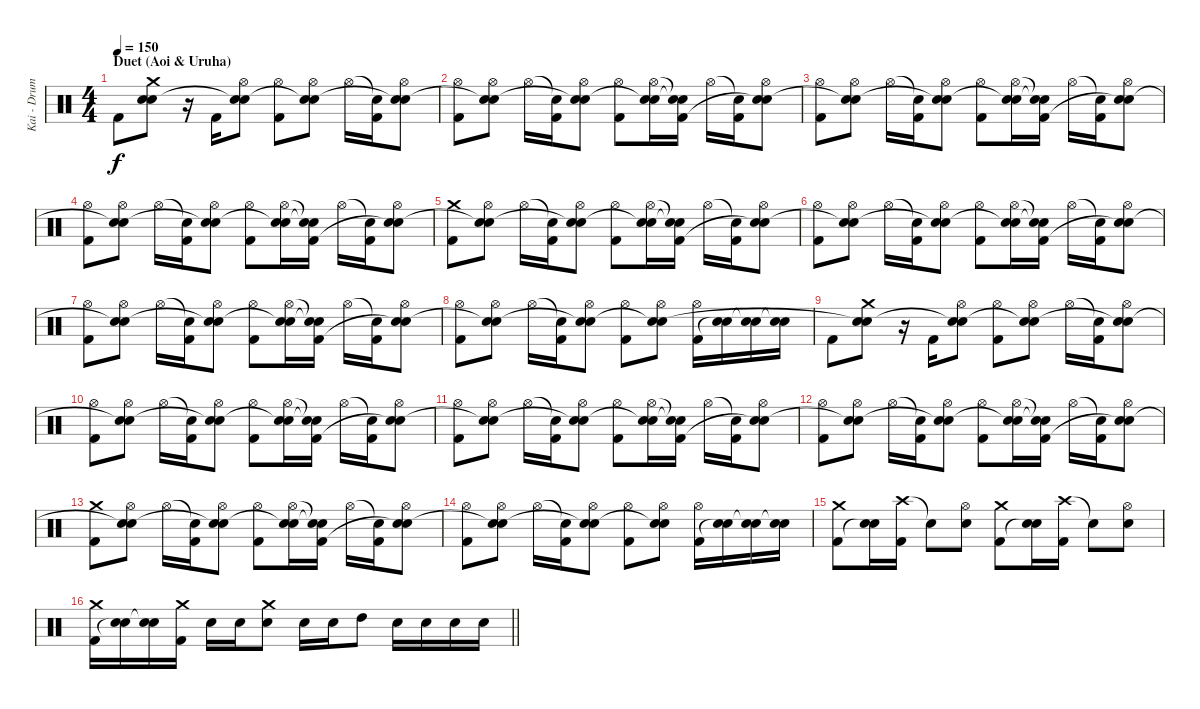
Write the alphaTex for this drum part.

\track ("Kai - Drums" "Kai - Drum") {instrument percussion}
\staff {score}
\articulation defaults
\ts (4 4)
\section ("" "Duet (Aoi & Uruha)")
\tempo 150
\clef neutral
\ks c "Kick (hit) 2".8{dy f}
("Crash medium (hit)" "Snare (hit) 2" "Snare (hit)"{t}).8 r.16 "Kick (hit) 2".16 ("Hi-Hat (open)" "Snare (hit) 2" "Snare (hit)"{t}).8 ("Hi-Hat (open)" "Kick (hit) 2").8 ("Hi-Hat (open)" "Snare (hit) 2" "Snare (hit)"{t}).8 "Hi-Hat (open)".16 ("Snare (hit)"{t} "Kick (hit) 2").16 ("Hi-Hat (open)" "Snare (hit) 2" "Snare (hit)"{t}).8 |
("Hi-Hat (open)" "Kick (hit) 2").8 ("Hi-Hat (open)" "Snare (hit) 2" "Snare (hit)"{t}).8 "Hi-Hat (open)".16 ("Snare (hit)"{t} "Kick (hit) 2").16 ("Hi-Hat (open)" "Snare (hit) 2" "Snare (hit)"{t}).8 ("Hi-Hat (open)" "Kick (hit) 2").8 ("Hi-Hat (open)" "Snare (hit) 2" "Snare (hit)"{t}).16 ("Snare (hit)"{t} "Snare (hit)"{t} "Kick (hit) 2").16 "Hi-Hat (open)".16 ("Snare (hit)"{t} "Kick (hit) 2").16 ("Hi-Hat (open)" "Snare (hit) 2" "Snare (hit)"{t}).8 |
("Hi-Hat (open)" "Kick (hit) 2").8 ("Hi-Hat (open)" "Snare (hit) 2" "Snare (hit)"{t}).8 "Hi-Hat (open)".16 ("Snare (hit)"{t} "Kick (hit) 2").16 ("Hi-Hat (open)" "Snare (hit) 2" "Snare (hit)"{t}).8 ("Hi-Hat (open)" "Kick (hit) 2").8 ("Hi-Hat (open)" "Snare (hit) 2" "Snare (hit)"{t}).16 ("Snare (hit)"{t} "Snare (hit)"{t} "Kick (hit) 2").16 "Hi-Hat (open)".16 ("Snare (hit)"{t} "Kick (hit) 2").16 ("Hi-Hat (open)" "Snare (hit) 2" "Snare (hit)"{t}).8 |
("Hi-Hat (open)" "Kick (hit) 2").8 ("Hi-Hat (open)" "Snare (hit) 2" "Snare (hit)"{t}).8 "Hi-Hat (open)".16 ("Snare (hit)"{t} "Kick (hit) 2").16 ("Hi-Hat (open)" "Snare (hit) 2" "Snare (hit)"{t}).8 ("Hi-Hat (open)" "Kick (hit) 2").8 ("Hi-Hat (open)" "Snare (hit) 2" "Snare (hit)"{t}).16 ("Snare (hit)"{t} "Snare (hit)"{t} "Kick (hit) 2").16 "Hi-Hat (open)".16 ("Snare (hit)"{t} "Kick (hit) 2").16 ("Hi-Hat (open)" "Snare (hit) 2" "Snare (hit)"{t}).8 |
("Crash medium (hit)" "Kick (hit) 2").8 ("Hi-Hat (open)" "Snare (hit) 2" "Snare (hit)"{t}).8 "Hi-Hat (open)".16 ("Snare (hit)"{t} "Kick (hit) 2").16 ("Hi-Hat (open)" "Snare (hit) 2" "Snare (hit)"{t}).8 ("Hi-Hat (open)" "Kick (hit) 2").8 ("Hi-Hat (open)" "Snare (hit) 2" "Snare (hit)"{t}).16 ("Snare (hit)"{t} "Snare (hit)"{t} "Kick (hit) 2").16 "Hi-Hat (open)".16 ("Snare (hit)"{t} "Kick (hit) 2").16 ("Hi-Hat (open)" "Snare (hit) 2" "Snare (hit)"{t}).8 |
("Hi-Hat (open)" "Kick (hit) 2").8 ("Hi-Hat (open)" "Snare (hit) 2" "Snare (hit)"{t}).8 "Hi-Hat (open)".16 ("Snare (hit)"{t} "Kick (hit) 2").16 ("Hi-Hat (open)" "Snare (hit) 2" "Snare (hit)"{t}).8 ("Hi-Hat (open)" "Kick (hit) 2").8 ("Hi-Hat (open)" "Snare (hit) 2" "Snare (hit)"{t}).16 ("Snare (hit)"{t} "Snare (hit)"{t} "Kick (hit) 2").16 "Hi-Hat (open)".16 ("Snare (hit)"{t} "Kick (hit) 2").16 ("Hi-Hat (open)" "Snare (hit) 2" "Snare (hit)"{t}).8 |
("Hi-Hat (open)" "Kick (hit) 2").8 ("Hi-Hat (open)" "Snare (hit) 2" "Snare (hit)"{t}).8 "Hi-Hat (open)".16 ("Snare (hit)"{t} "Kick (hit) 2").16 ("Hi-Hat (open)" "Snare (hit) 2" "Snare (hit)"{t}).8 ("Hi-Hat (open)" "Kick (hit) 2").8 ("Hi-Hat (open)" "Snare (hit) 2" "Snare (hit)"{t}).16 ("Snare (hit)"{t} "Snare (hit)"{t} "Kick (hit) 2").16 "Hi-Hat (open)".16 ("Snare (hit)"{t} "Kick (hit) 2").16 ("Hi-Hat (open)" "Snare (hit) 2" "Snare (hit)"{t}).8 |
("Hi-Hat (open)" "Kick (hit) 2").8 ("Hi-Hat (open)" "Snare (hit) 2" "Snare (hit)"{t}).8 "Hi-Hat (open)".16 ("Snare (hit)"{t} "Kick (hit) 2").16 ("Hi-Hat (open)" "Snare (hit) 2" "Snare (hit)"{t}).8 ("Hi-Hat (open)" "Kick (hit) 2").8 ("Hi-Hat (open)" "Snare (hit) 2" "Snare (hit)"{t}).8 ("Hi-Hat (open)" "Kick (hit) 2").16 ("Snare (hit) 2" "Snare (hit)"{t}).16 ("Snare (hit) 2" "Snare (hit)"{t}).16 ("Snare (hit) 2" "Snare (hit)"{t}).16 |
"Kick (hit) 2".8 ("Crash medium (hit)" "Snare (hit) 2" "Snare (hit)"{t}).8 r.16 "Kick (hit) 2".16 ("Hi-Hat (open)" "Snare (hit) 2" "Snare (hit)"{t}).8 ("Hi-Hat (open)" "Kick (hit) 2").8 ("Hi-Hat (open)" "Snare (hit) 2" "Snare (hit)"{t}).8 "Hi-Hat (open)".16 ("Snare (hit)"{t} "Kick (hit) 2").16 ("Hi-Hat (open)" "Snare (hit) 2" "Snare (hit)"{t}).8 |
("Hi-Hat (open)" "Kick (hit) 2").8 ("Hi-Hat (open)" "Snare (hit) 2" "Snare (hit)"{t}).8 "Hi-Hat (open)".16 ("Snare (hit)"{t} "Kick (hit) 2").16 ("Hi-Hat (open)" "Snare (hit) 2" "Snare (hit)"{t}).8 ("Hi-Hat (open)" "Kick (hit) 2").8 ("Hi-Hat (open)" "Snare (hit) 2" "Snare (hit)"{t}).16 ("Snare (hit)"{t} "Snare (hit)"{t} "Kick (hit) 2").16 "Hi-Hat (open)".16 ("Snare (hit)"{t} "Kick (hit) 2").16 ("Hi-Hat (open)" "Snare (hit) 2" "Snare (hit)"{t}).8 |
("Hi-Hat (open)" "Kick (hit) 2").8 ("Hi-Hat (open)" "Snare (hit) 2" "Snare (hit)"{t}).8 "Hi-Hat (open)".16 ("Snare (hit)"{t} "Kick (hit) 2").16 ("Hi-Hat (open)" "Snare (hit) 2" "Snare (hit)"{t}).8 ("Hi-Hat (open)" "Kick (hit) 2").8 ("Hi-Hat (open)" "Snare (hit) 2" "Snare (hit)"{t}).16 ("Snare (hit)"{t} "Snare (hit)"{t} "Kick (hit) 2").16 "Hi-Hat (open)".16 ("Snare (hit)"{t} "Kick (hit) 2").16 ("Hi-Hat (open)" "Snare (hit) 2" "Snare (hit)"{t}).8 |
("Hi-Hat (open)" "Kick (hit) 2").8 ("Hi-Hat (open)" "Snare (hit) 2" "Snare (hit)"{t}).8 "Hi-Hat (open)".16 ("Snare (hit)"{t} "Kick (hit) 2").16 ("Hi-Hat (open)" "Snare (hit) 2" "Snare (hit)"{t}).8 ("Hi-Hat (open)" "Kick (hit) 2").8 ("Hi-Hat (open)" "Snare (hit) 2" "Snare (hit)"{t}).16 ("Snare (hit)"{t} "Snare (hit)"{t} "Kick (hit) 2").16 "Hi-Hat (open)".16 ("Snare (hit)"{t} "Kick (hit) 2").16 ("Hi-Hat (open)" "Snare (hit) 2" "Snare (hit)"{t}).8 |
("Crash medium (hit)" "Kick (hit) 2").8 ("Hi-Hat (open)" "Snare (hit) 2" "Snare (hit)"{t}).8 "Hi-Hat (open)".16 ("Snare (hit)"{t} "Kick (hit) 2").16 ("Hi-Hat (open)" "Snare (hit) 2" "Snare (hit)"{t}).8 ("Hi-Hat (open)" "Kick (hit) 2").8 ("Hi-Hat (open)" "Snare (hit) 2" "Snare (hit)"{t}).16 ("Snare (hit)"{t} "Snare (hit)"{t} "Kick (hit) 2").16 "Hi-Hat (open)".16 ("Snare (hit)"{t} "Kick (hit) 2").16 ("Hi-Hat (open)" "Snare (hit) 2" "Snare (hit)"{t}).8 |
("Hi-Hat (open)" "Kick (hit) 2").8 ("Hi-Hat (open)" "Snare (hit) 2" "Snare (hit)"{t}).8 "Hi-Hat (open)".16 ("Snare (hit)"{t} "Kick (hit) 2").16 ("Hi-Hat (open)" "Snare (hit) 2" "Snare (hit)"{t}).8 ("Hi-Hat (open)" "Kick (hit) 2").8 ("Hi-Hat (open)" "Snare (hit) 2" "Snare (hit)"{t}).8 ("Hi-Hat (open)" "Kick (hit) 2").16 ("Snare (hit) 2" "Snare (hit)"{t}).16 ("Snare (hit) 2" "Snare (hit)"{t}).16 ("Snare (hit) 2" "Snare (hit)"{t}).16 |
("Crash medium (hit)" "Kick (hit) 2").8 ("Snare (hit) 2" "Snare (hit)"{t}).16 ("Crash high (hit)" "Kick (hit) 2").16 "Snare (hit)"{t}.8 ("Hi-Hat (open)" "Snare (hit) 2").8 ("Crash medium (hit)" "Kick (hit) 2").8 ("Snare (hit) 2" "Snare (hit)"{t}).16 ("Crash high (hit)" "Kick (hit) 2").16 "Snare (hit)"{t}.8 ("Hi-Hat (open)" "Snare (hit) 2").8 |
\barLineRight lightlight
("Crash medium (hit)" "Kick (hit) 2").16 ("Snare (hit) 2" "Snare (hit)"{t}).16 ("Snare (hit) 2" "Snare (hit)"{t}).16 ("Crash medium (hit)" "Kick (hit) 2").16 "Snare (hit) 2".16 "Snare (hit) 2".16 ("Crash medium (hit)" "Snare (hit) 2").8 "Snare (hit) 2".16 "Snare (hit) 2".16 "High Tom (hit)".8 "Snare (hit) 2".16 "Snare (hit) 2".16 "Snare (hit) 2".16 "Snare (hit) 2".16
